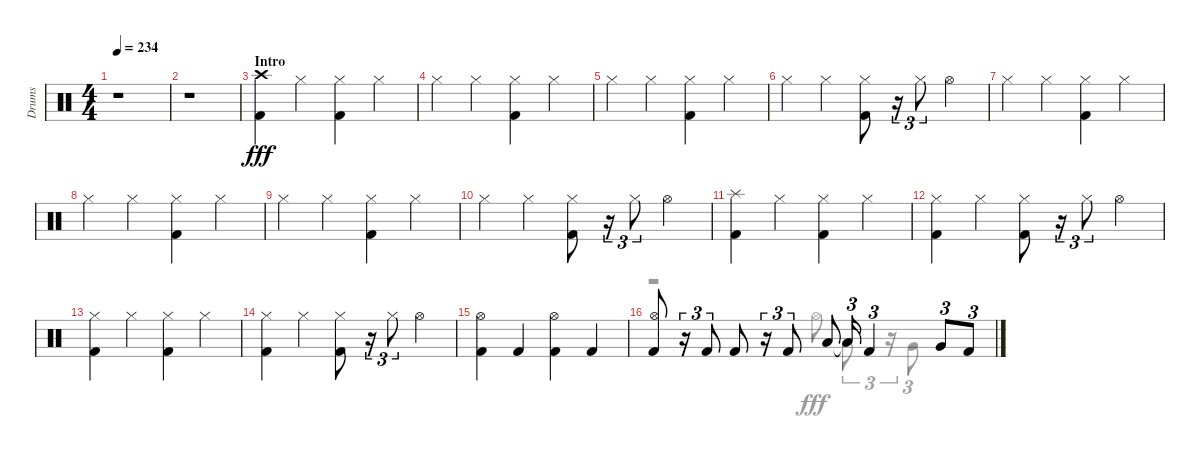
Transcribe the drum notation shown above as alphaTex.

\track ("Drums" "Drums") {instrument percussion}
\staff {score}
\articulation defaults
\voice
\ts (4 4)
\tempo 234
\clef neutral
\ks aminor
r.1{dy fff} |
r.1 |
\section ("" "Intro")
("Kick (hit) 2" "Crash high (hit)").4 "Hi-Hat (closed)".4 ("Kick (hit) 2" "Hi-Hat (closed)").4 "Hi-Hat (closed)".4 |
"Hi-Hat (closed)".4 "Hi-Hat (closed)".4 ("Kick (hit) 2" "Hi-Hat (closed)").4 "Hi-Hat (closed)".4 |
"Hi-Hat (closed)".4 "Hi-Hat (closed)".4 ("Kick (hit) 2" "Hi-Hat (closed)").4 "Hi-Hat (closed)".4 |
"Hi-Hat (closed)".4 "Hi-Hat (closed)".4 ("Kick (hit) 2" "Hi-Hat (closed)").8 r.16{tu (3 2)} "Hi-Hat (closed)".8{tu (3 2)} "Hi-Hat (open)".4 |
"Hi-Hat (closed)".4 "Hi-Hat (closed)".4 ("Kick (hit) 2" "Hi-Hat (closed)").4 "Hi-Hat (closed)".4 |
"Hi-Hat (closed)".4 "Hi-Hat (closed)".4 ("Kick (hit) 2" "Hi-Hat (closed)").4 "Hi-Hat (closed)".4 |
"Hi-Hat (closed)".4 "Hi-Hat (closed)".4 ("Kick (hit) 2" "Hi-Hat (closed)").4 "Hi-Hat (closed)".4 |
"Hi-Hat (closed)".4 "Hi-Hat (closed)".4 ("Kick (hit) 2" "Hi-Hat (closed)").8 r.16{tu (3 2)} "Hi-Hat (closed)".8{tu (3 2)} "Hi-Hat (open)".4 |
("Kick (hit) 2" "Splash (hit)").4 "Hi-Hat (closed)".4 ("Kick (hit) 2" "Hi-Hat (closed)").4 "Hi-Hat (closed)".4 |
("Kick (hit) 2" "Hi-Hat (closed)").4 "Hi-Hat (closed)".4 ("Kick (hit) 2" "Hi-Hat (closed)").8 r.16{tu (3 2)} "Hi-Hat (closed)".8{tu (3 2)} "Hi-Hat (open)".4 |
("Kick (hit) 2" "Hi-Hat (closed)").4 "Hi-Hat (closed)".4 ("Kick (hit) 2" "Hi-Hat (closed)").4 "Hi-Hat (closed)".4 |
("Kick (hit) 2" "Hi-Hat (closed)").4 "Hi-Hat (closed)".4 ("Kick (hit) 2" "Hi-Hat (closed)").8 r.16{tu (3 2)} "Hi-Hat (closed)".8{tu (3 2)} "Hi-Hat (open)".4 |
("Kick (hit) 2" "Hi-Hat (open)").4 "Kick (hit) 2".4 ("Kick (hit) 2" "Hi-Hat (open)").4 "Kick (hit) 2".4 |
("Kick (hit) 2" "Hi-Hat (open)").8 r.16{tu (3 2)} "Kick (hit) 2".8{tu (3 2)} "Kick (hit) 2".8 r.16{tu (3 2)} "Kick (hit) 2".8{tu (3 2)} "Low Tom (hit)".8 "Low Tom (hit)"{t}.16{tu (3 2)} "Kick (hit) 2".4{tu (3 2)} "Very Low Tom (hit)".8{tu (3 2)} "Kick (hit) 2".8{tu (3 2)}
\voice
\clef neutral
\ottava regular
\simile none
\ks aminor
|
|
|
|
|
|
|
|
|
|
|
|
|
|
|
r.2 "Hi-Hat (open)".8 "Low Tom (hit)".8{tu (3 2)} r.16{tu (3 2)} "Very Low Tom (hit)".8{tu (3 2)}
